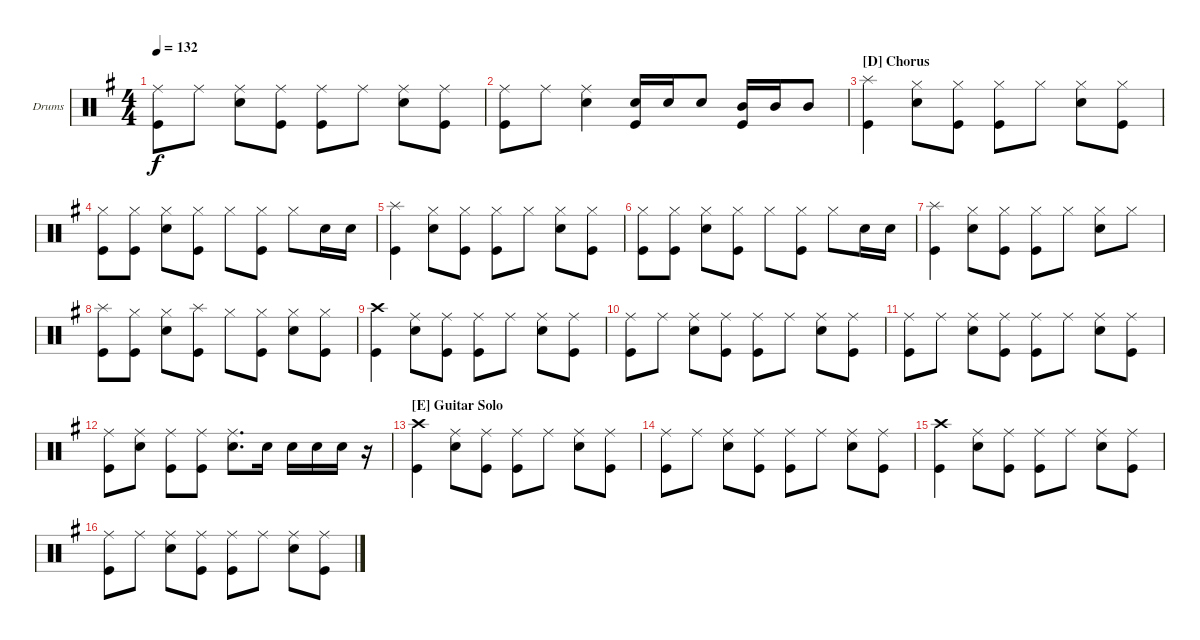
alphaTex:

\defaultSystemsLayout 4
\bracketExtendMode groupsimilarinstruments
\firstSystemTrackNameOrientation horizontal
\otherSystemsTrackNameOrientation horizontal
\track ("Drumkit" "Drums") {instrument percussion}
\staff {score}
\articulation defaults
\ts (4 4)
\tempo 132
\clef neutral
\scale
0.957125
\ks g
("Ride (middle)" "Kick (hit)").8{dy f} "Ride (middle)".8 ("Ride (middle)" "Snare (hit) 2").8 ("Ride (middle)" "Kick (hit)").8 ("Ride (middle)" "Kick (hit)").8 "Ride (middle)".8 ("Ride (middle)" "Snare (hit) 2").8 ("Ride (middle)" "Kick (hit)").8 |
\scale
1.08575 ("Ride (middle)" "Kick (hit)").8 "Ride (middle)".8 ("Ride (middle)" "Snare (hit) 2").4 ("Snare (hit) 2" "Kick (hit)").16 "Snare (hit) 2".16 "Snare (hit) 2".8 ("Mid Tom (hit)" "Kick (hit)").16 "Mid Tom (hit)".16 "Mid Tom (hit)".8 |
\section ("D" "Chorus")
\scale
0.957125 ("Splash (hit)" "Kick (hit)").4 ("Hi-Hat (closed)" "Snare (hit) 2").8 ("Hi-Hat (closed)" "Kick (hit)").8 ("Hi-Hat (closed)" "Kick (hit)").8 "Hi-Hat (closed)".8 ("Hi-Hat (closed)" "Snare (hit) 2").8 ("Hi-Hat (closed)" "Kick (hit)").8 |
\scale
0.957125 ("Hi-Hat (closed)" "Kick (hit)").8 ("Hi-Hat (closed)" "Kick (hit)").8 ("Hi-Hat (closed)" "Snare (hit) 2").8 ("Hi-Hat (closed)" "Kick (hit)").8 "Hi-Hat (closed)".8 ("Hi-Hat (closed)" "Kick (hit)").8 "Hi-Hat (closed)".8 "Snare (hit) 2".16 "Snare (hit) 2".16 |
\scale
1.08575 ("Splash (hit)" "Kick (hit)").4 ("Hi-Hat (closed)" "Snare (hit) 2").8 ("Hi-Hat (closed)" "Kick (hit)").8 ("Hi-Hat (closed)" "Kick (hit)").8 "Hi-Hat (closed)".8 ("Hi-Hat (closed)" "Snare (hit) 2").8 ("Hi-Hat (closed)" "Kick (hit)").8 |
\scale
0.957125 ("Hi-Hat (closed)" "Kick (hit)").8 ("Hi-Hat (closed)" "Kick (hit)").8 ("Hi-Hat (closed)" "Snare (hit) 2").8 ("Hi-Hat (closed)" "Kick (hit)").8 "Hi-Hat (closed)".8 ("Hi-Hat (closed)" "Kick (hit)").8 "Hi-Hat (closed)".8 "Snare (hit) 2".16 "Snare (hit) 2".16 |
\scale
0.957125 ("Splash (hit)" "Kick (hit)").4 ("Hi-Hat (closed)" "Snare (hit) 2").8 ("Hi-Hat (closed)" "Kick (hit)").8 ("Hi-Hat (closed)" "Kick (hit)").8 "Hi-Hat (closed)".8 ("Hi-Hat (closed)" "Snare (hit) 2").8 "Hi-Hat (closed)".8 |
\scale
1.08575 ("Splash (hit)" "Kick (hit)").8 ("Hi-Hat (closed)" "Kick (hit)").8 ("Hi-Hat (closed)" "Snare (hit) 2").8 ("Splash (hit)" "Kick (hit)").8 "Hi-Hat (closed)".8 ("Hi-Hat (closed)" "Kick (hit)").8 ("Hi-Hat (closed)" "Snare (hit) 2").8 ("Hi-Hat (closed)" "Kick (hit)").8 |
\scale
0.957125 ("Crash high (hit)" "Kick (hit)").4 ("Ride (middle)" "Snare (hit) 2").8 ("Ride (middle)" "Kick (hit)").8 ("Ride (middle)" "Kick (hit)").8 "Ride (middle)".8 ("Ride (middle)" "Snare (hit) 2").8 ("Ride (middle)" "Kick (hit)").8 |
\scale
0.957125 ("Ride (middle)" "Kick (hit)").8 "Ride (middle)".8 ("Ride (middle)" "Snare (hit) 2").8 ("Ride (middle)" "Kick (hit)").8 ("Ride (middle)" "Kick (hit)").8 "Ride (middle)".8 ("Ride (middle)" "Snare (hit) 2").8 ("Ride (middle)" "Kick (hit)").8 |
\scale
1.08575 ("Ride (middle)" "Kick (hit)").8 "Ride (middle)".8 ("Ride (middle)" "Snare (hit) 2").8 ("Ride (middle)" "Kick (hit)").8 ("Ride (middle)" "Kick (hit)").8 "Ride (middle)".8 ("Ride (middle)" "Snare (hit) 2").8 ("Ride (middle)" "Kick (hit)").8 |
\scale
0.957125 ("Ride (middle)" "Kick (hit)").8 ("Ride (middle)" "Snare (hit) 2").8 ("Ride (middle)" "Kick (hit)").8 ("Ride (middle)" "Kick (hit)").8 ("Ride (middle)" "Snare (hit) 2").8{d} "Snare (hit) 2".16 "Snare (hit) 2".16 "Snare (hit) 2".16 "Snare (hit) 2".16 r.16 |
\section ("E" "Guitar Solo")
\scale
0.957125 ("Crash high (hit)" "Kick (hit)").4 ("Ride (middle)" "Snare (hit) 2").8 ("Ride (middle)" "Kick (hit)").8 ("Ride (middle)" "Kick (hit)").8 "Ride (middle)".8 ("Ride (middle)" "Snare (hit) 2").8 ("Ride (middle)" "Kick (hit)").8 |
\scale
1.08575 ("Ride (middle)" "Kick (hit)").8 "Ride (middle)".8 ("Ride (middle)" "Snare (hit) 2").8 ("Ride (middle)" "Kick (hit)").8 ("Ride (middle)" "Kick (hit)").8 "Ride (middle)".8 ("Ride (middle)" "Snare (hit) 2").8 ("Ride (middle)" "Kick (hit)").8 |
\scale
0.957125 ("Crash high (hit)" "Kick (hit)").4 ("Ride (middle)" "Snare (hit) 2").8 ("Ride (middle)" "Kick (hit)").8 ("Ride (middle)" "Kick (hit)").8 "Ride (middle)".8 ("Ride (middle)" "Snare (hit) 2").8 ("Ride (middle)" "Kick (hit)").8 |
\scale
0.957125 ("Ride (middle)" "Kick (hit)").8 "Ride (middle)".8 ("Ride (middle)" "Snare (hit) 2").8 ("Ride (middle)" "Kick (hit)").8 ("Ride (middle)" "Kick (hit)").8 "Ride (middle)".8 ("Ride (middle)" "Snare (hit) 2").8 ("Ride (middle)" "Kick (hit)").8
